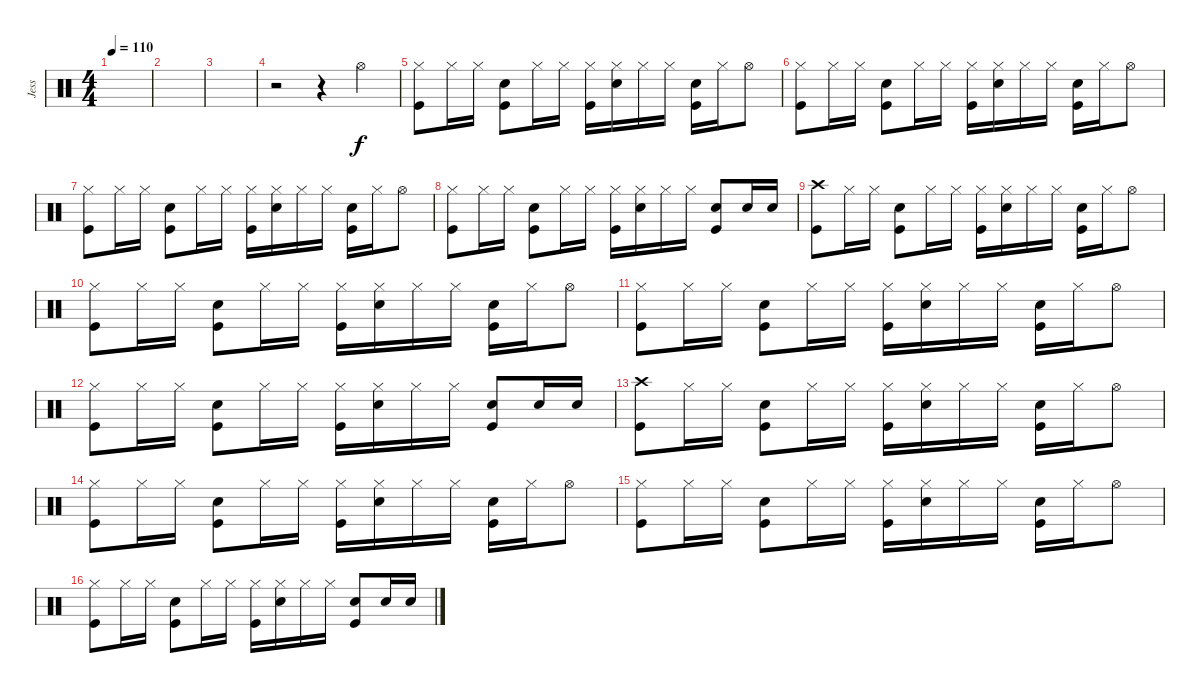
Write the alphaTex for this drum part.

\track ("Jess" "Jess") {instrument percussion}
\staff {score}
\articulation defaults
\ts (4 4)
\tempo 110
\clef neutral
\ks c
|
|
|
r.2 r.4 "Hi-Hat (open)".4 |
("Hi-Hat (closed)" "Kick (hit)").8 "Hi-Hat (closed)".16 "Hi-Hat (closed)".16 ("Electric Snare (hit)" "Kick (hit)").8 "Hi-Hat (closed)".16 "Hi-Hat (closed)".16 ("Hi-Hat (closed)" "Kick (hit)").16 ("Hi-Hat (closed)" "Electric Snare (hit)").16 "Hi-Hat (closed)".16 "Hi-Hat (closed)".16 ("Electric Snare (hit)" "Kick (hit)").16 "Hi-Hat (closed)".16 "Hi-Hat (open)".8 |
("Hi-Hat (closed)" "Kick (hit)").8 "Hi-Hat (closed)".16 "Hi-Hat (closed)".16 ("Electric Snare (hit)" "Kick (hit)").8 "Hi-Hat (closed)".16 "Hi-Hat (closed)".16 ("Hi-Hat (closed)" "Kick (hit)").16 ("Hi-Hat (closed)" "Electric Snare (hit)").16 "Hi-Hat (closed)".16 "Hi-Hat (closed)".16 ("Electric Snare (hit)" "Kick (hit)").16 "Hi-Hat (closed)".16 "Hi-Hat (open)".8 |
("Hi-Hat (closed)" "Kick (hit)").8 "Hi-Hat (closed)".16 "Hi-Hat (closed)".16 ("Electric Snare (hit)" "Kick (hit)").8 "Hi-Hat (closed)".16 "Hi-Hat (closed)".16 ("Hi-Hat (closed)" "Kick (hit)").16 ("Hi-Hat (closed)" "Electric Snare (hit)").16 "Hi-Hat (closed)".16 "Hi-Hat (closed)".16 ("Electric Snare (hit)" "Kick (hit)").16 "Hi-Hat (closed)".16 "Hi-Hat (open)".8 |
("Hi-Hat (closed)" "Kick (hit)").8 "Hi-Hat (closed)".16 "Hi-Hat (closed)".16 ("Electric Snare (hit)" "Kick (hit)").8 "Hi-Hat (closed)".16 "Hi-Hat (closed)".16 ("Hi-Hat (closed)" "Kick (hit)").16 ("Hi-Hat (closed)" "Electric Snare (hit)").16 "Hi-Hat (closed)".16 "Hi-Hat (closed)".16 ("Electric Snare (hit)" "Kick (hit)").8 "Electric Snare (hit)".16 "Electric Snare (hit)".16 |
("Crash high (hit)" "Kick (hit)").8 "Hi-Hat (closed)".16 "Hi-Hat (closed)".16 ("Electric Snare (hit)" "Kick (hit)").8 "Hi-Hat (closed)".16 "Hi-Hat (closed)".16 ("Hi-Hat (closed)" "Kick (hit)").16 ("Hi-Hat (closed)" "Electric Snare (hit)").16 "Hi-Hat (closed)".16 "Hi-Hat (closed)".16 ("Electric Snare (hit)" "Kick (hit)").16 "Hi-Hat (closed)".16 "Hi-Hat (open)".8 |
("Hi-Hat (closed)" "Kick (hit)").8 "Hi-Hat (closed)".16 "Hi-Hat (closed)".16 ("Electric Snare (hit)" "Kick (hit)").8 "Hi-Hat (closed)".16 "Hi-Hat (closed)".16 ("Hi-Hat (closed)" "Kick (hit)").16 ("Hi-Hat (closed)" "Electric Snare (hit)").16 "Hi-Hat (closed)".16 "Hi-Hat (closed)".16 ("Electric Snare (hit)" "Kick (hit)").16 "Hi-Hat (closed)".16 "Hi-Hat (open)".8 |
("Hi-Hat (closed)" "Kick (hit)").8 "Hi-Hat (closed)".16 "Hi-Hat (closed)".16 ("Electric Snare (hit)" "Kick (hit)").8 "Hi-Hat (closed)".16 "Hi-Hat (closed)".16 ("Hi-Hat (closed)" "Kick (hit)").16 ("Hi-Hat (closed)" "Electric Snare (hit)").16 "Hi-Hat (closed)".16 "Hi-Hat (closed)".16 ("Electric Snare (hit)" "Kick (hit)").16 "Hi-Hat (closed)".16 "Hi-Hat (open)".8 |
("Hi-Hat (closed)" "Kick (hit)").8 "Hi-Hat (closed)".16 "Hi-Hat (closed)".16 ("Electric Snare (hit)" "Kick (hit)").8 "Hi-Hat (closed)".16 "Hi-Hat (closed)".16 ("Hi-Hat (closed)" "Kick (hit)").16 ("Hi-Hat (closed)" "Electric Snare (hit)").16 "Hi-Hat (closed)".16 "Hi-Hat (closed)".16 ("Electric Snare (hit)" "Kick (hit)").8 "Electric Snare (hit)".16 "Electric Snare (hit)".16 |
("Crash high (hit)" "Kick (hit)").8 "Hi-Hat (closed)".16 "Hi-Hat (closed)".16 ("Electric Snare (hit)" "Kick (hit)").8 "Hi-Hat (closed)".16 "Hi-Hat (closed)".16 ("Hi-Hat (closed)" "Kick (hit)").16 ("Hi-Hat (closed)" "Electric Snare (hit)").16 "Hi-Hat (closed)".16 "Hi-Hat (closed)".16 ("Electric Snare (hit)" "Kick (hit)").16 "Hi-Hat (closed)".16 "Hi-Hat (open)".8 |
("Hi-Hat (closed)" "Kick (hit)").8 "Hi-Hat (closed)".16 "Hi-Hat (closed)".16 ("Electric Snare (hit)" "Kick (hit)").8 "Hi-Hat (closed)".16 "Hi-Hat (closed)".16 ("Hi-Hat (closed)" "Kick (hit)").16 ("Hi-Hat (closed)" "Electric Snare (hit)").16 "Hi-Hat (closed)".16 "Hi-Hat (closed)".16 ("Electric Snare (hit)" "Kick (hit)").16 "Hi-Hat (closed)".16 "Hi-Hat (open)".8 |
("Hi-Hat (closed)" "Kick (hit)").8 "Hi-Hat (closed)".16 "Hi-Hat (closed)".16 ("Electric Snare (hit)" "Kick (hit)").8 "Hi-Hat (closed)".16 "Hi-Hat (closed)".16 ("Hi-Hat (closed)" "Kick (hit)").16 ("Hi-Hat (closed)" "Electric Snare (hit)").16 "Hi-Hat (closed)".16 "Hi-Hat (closed)".16 ("Electric Snare (hit)" "Kick (hit)").16 "Hi-Hat (closed)".16 "Hi-Hat (open)".8 |
("Hi-Hat (closed)" "Kick (hit)").8 "Hi-Hat (closed)".16 "Hi-Hat (closed)".16 ("Electric Snare (hit)" "Kick (hit)").8 "Hi-Hat (closed)".16 "Hi-Hat (closed)".16 ("Hi-Hat (closed)" "Kick (hit)").16 ("Hi-Hat (closed)" "Electric Snare (hit)").16 "Hi-Hat (closed)".16 "Hi-Hat (closed)".16 ("Electric Snare (hit)" "Kick (hit)").8 "Electric Snare (hit)".16 "Electric Snare (hit)".16
